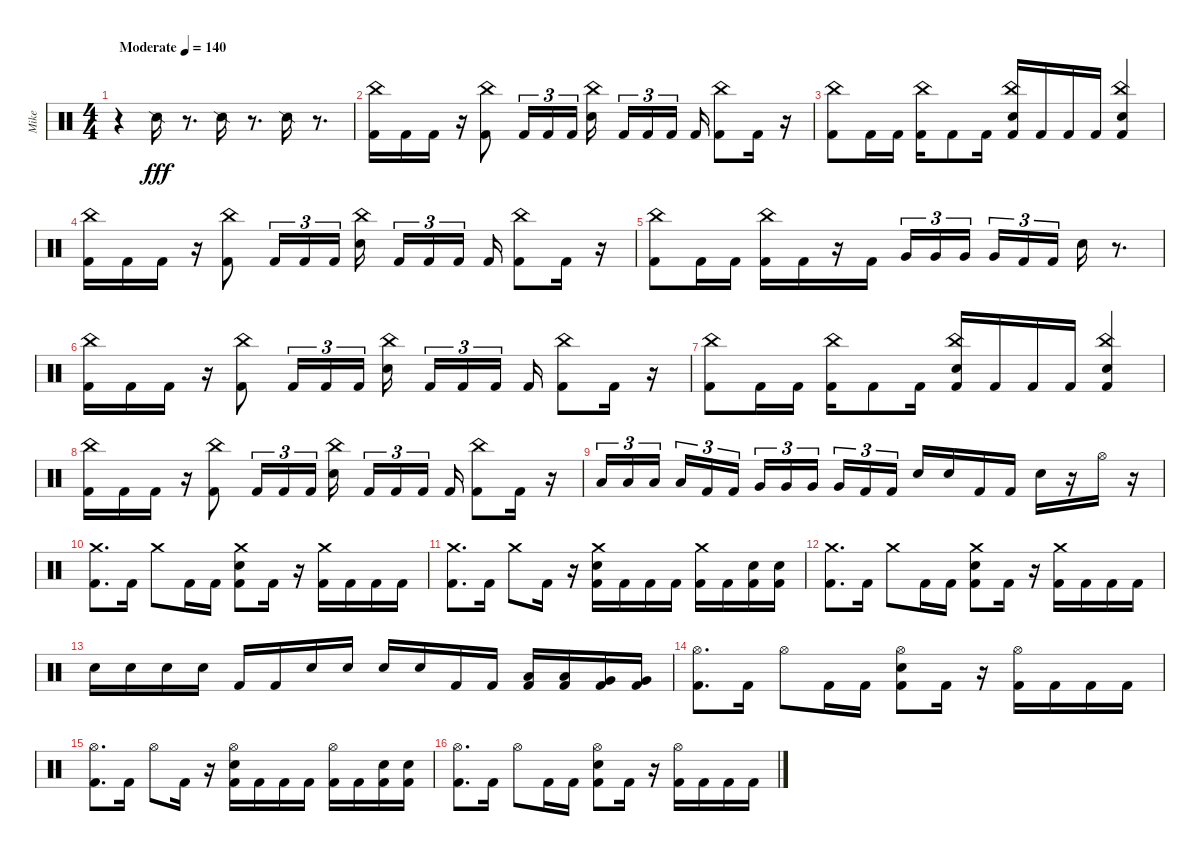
\track ("Mike" "Mike") {instrument percussion}
\staff {score}
\articulation defaults
\ts (4 4)
\tempo (140 "Moderate")
\clef neutral
\ks c
r.4{dy fff} "Snare (side stick) 2".16 r.8{d} "Snare (side stick) 2".16 r.8{d} "Snare (side stick) 2".16 r.8{d} |
("Kick (hit) 2" "China (hit)").16 "Kick (hit) 2".16 "Kick (hit) 2".16 r.16 ("Kick (hit) 2" "China (hit)").8 "Kick (hit) 2".16{tu (3 2)} "Kick (hit) 2".16{tu (3 2)} "Kick (hit) 2".16{tu (3 2)} ("Electric Snare (hit)" "China (hit)").16{beam splitsecondary} "Kick (hit) 2".16{tu (3 2)} "Kick (hit) 2".16{tu (3 2)} "Kick (hit) 2".16{tu (3 2) beam splitsecondary} "Kick (hit) 2".16 ("Kick (hit) 2" "China (hit)").8 "Kick (hit) 2".16 r.16 |
("Kick (hit) 2" "China (hit)").8 "Kick (hit) 2".16 "Kick (hit) 2".16 ("Kick (hit) 2" "China (hit)").16 "Kick (hit) 2".8 "Kick (hit) 2".16 ("Kick (hit) 2" "Electric Snare (hit)" "China (hit)").16 "Kick (hit) 2".16 "Kick (hit) 2".16 "Kick (hit) 2".16 ("Kick (hit) 2" "Electric Snare (hit)" "China (hit)").4 |
("Kick (hit) 2" "China (hit)").16 "Kick (hit) 2".16 "Kick (hit) 2".16 r.16 ("Kick (hit) 2" "China (hit)").8 "Kick (hit) 2".16{tu (3 2)} "Kick (hit) 2".16{tu (3 2)} "Kick (hit) 2".16{tu (3 2)} ("Electric Snare (hit)" "China (hit)").16{beam splitsecondary} "Kick (hit) 2".16{tu (3 2)} "Kick (hit) 2".16{tu (3 2)} "Kick (hit) 2".16{tu (3 2) beam splitsecondary} "Kick (hit) 2".16 ("Kick (hit) 2" "China (hit)").8 "Kick (hit) 2".16 r.16 |
("Kick (hit) 2" "China (hit)").8 "Kick (hit) 2".16 "Kick (hit) 2".16 ("Kick (hit) 2" "China (hit)").16 "Kick (hit) 2".16 r.16 "Kick (hit) 2".16 "Very Low Tom (hit)".16{tu (3 2)} "Very Low Tom (hit)".16{tu (3 2)} "Very Low Tom (hit)".16{tu (3 2) beam splitsecondary} "Very Low Tom (hit)".16{tu (3 2)} "Kick (hit) 2".16{tu (3 2)} "Kick (hit) 2".16{tu (3 2)} "Electric Snare (hit)".16 r.8{d} |
("Kick (hit) 2" "China (hit)").16 "Kick (hit) 2".16 "Kick (hit) 2".16 r.16 ("Kick (hit) 2" "China (hit)").8 "Kick (hit) 2".16{tu (3 2)} "Kick (hit) 2".16{tu (3 2)} "Kick (hit) 2".16{tu (3 2)} ("Electric Snare (hit)" "China (hit)").16{beam splitsecondary} "Kick (hit) 2".16{tu (3 2)} "Kick (hit) 2".16{tu (3 2)} "Kick (hit) 2".16{tu (3 2) beam splitsecondary} "Kick (hit) 2".16 ("Kick (hit) 2" "China (hit)").8 "Kick (hit) 2".16 r.16 |
("Kick (hit) 2" "China (hit)").8 "Kick (hit) 2".16 "Kick (hit) 2".16 ("Kick (hit) 2" "China (hit)").16 "Kick (hit) 2".8 "Kick (hit) 2".16 ("Kick (hit) 2" "Electric Snare (hit)" "China (hit)").16 "Kick (hit) 2".16 "Kick (hit) 2".16 "Kick (hit) 2".16 ("Kick (hit) 2" "Electric Snare (hit)" "China (hit)").4 |
("Kick (hit) 2" "China (hit)").16 "Kick (hit) 2".16 "Kick (hit) 2".16 r.16 ("Kick (hit) 2" "China (hit)").8 "Kick (hit) 2".16{tu (3 2)} "Kick (hit) 2".16{tu (3 2)} "Kick (hit) 2".16{tu (3 2)} ("Electric Snare (hit)" "China (hit)").16{beam splitsecondary} "Kick (hit) 2".16{tu (3 2)} "Kick (hit) 2".16{tu (3 2)} "Kick (hit) 2".16{tu (3 2) beam splitsecondary} "Kick (hit) 2".16 ("Kick (hit) 2" "China (hit)").8 "Kick (hit) 2".16 r.16 |
"Low Tom (hit)".16{tu (3 2)} "Low Tom (hit)".16{tu (3 2)} "Low Tom (hit)".16{tu (3 2) beam splitsecondary} "Low Tom (hit)".16{tu (3 2)} "Kick (hit) 2".16{tu (3 2)} "Kick (hit) 2".16{tu (3 2)} "Very Low Tom (hit)".16{tu (3 2)} "Very Low Tom (hit)".16{tu (3 2)} "Very Low Tom (hit)".16{tu (3 2) beam splitsecondary} "Very Low Tom (hit)".16{tu (3 2)} "Kick (hit) 2".16{tu (3 2)} "Kick (hit) 2".16{tu (3 2)} "Electric Snare (hit)".16 "Electric Snare (hit)".16 "Kick (hit) 2".16 "Kick (hit) 2".16 "Electric Snare (hit)".16 r.16 "Hi-Hat (open)".16 r.16 |
("Kick (hit) 2" "Crash medium (hit)").8{d} "Kick (hit) 2".16 "Crash medium (hit)".8 "Kick (hit) 2".16 "Kick (hit) 2".16 ("Kick (hit) 2" "Electric Snare (hit)" "Crash medium (hit)").8 "Kick (hit) 2".16 r.16 ("Kick (hit) 2" "Crash medium (hit)").16 "Kick (hit) 2".16 "Kick (hit) 2".16 "Kick (hit) 2".16 |
("Kick (hit) 2" "Crash medium (hit)").8{d} "Kick (hit) 2".16 "Crash medium (hit)".8 "Kick (hit) 2".16 r.16 ("Kick (hit) 2" "Electric Snare (hit)" "Crash medium (hit)").16 "Kick (hit) 2".16 "Kick (hit) 2".16 "Kick (hit) 2".16 ("Kick (hit) 2" "Crash medium (hit)").16 "Kick (hit) 2".16 ("Kick (hit) 2" "Electric Snare (hit)").16 ("Kick (hit) 2" "Electric Snare (hit)").16 |
("Kick (hit) 2" "Crash medium (hit)").8{d} "Kick (hit) 2".16 "Crash medium (hit)".8 "Kick (hit) 2".16 "Kick (hit) 2".16 ("Kick (hit) 2" "Electric Snare (hit)" "Crash medium (hit)").8 "Kick (hit) 2".16 r.16 ("Kick (hit) 2" "Crash medium (hit)").16 "Kick (hit) 2".16 "Kick (hit) 2".16 "Kick (hit) 2".16 |
"Electric Snare (hit)".16 "Electric Snare (hit)".16 "Electric Snare (hit)".16 "Electric Snare (hit)".16 "Kick (hit) 2".16 "Kick (hit) 2".16 "Electric Snare (hit)".16 "Electric Snare (hit)".16 "Electric Snare (hit)".16 "Electric Snare (hit)".16 "Kick (hit) 2".16 "Kick (hit) 2".16 ("Kick (hit) 2" "Low Tom (hit)").16 ("Kick (hit) 2" "Low Tom (hit)").16 ("Kick (hit) 2" "Very Low Tom (hit)").16 ("Kick (hit) 2" "Very Low Tom (hit)").16 |
("Kick (hit) 2" "Hi-Hat (open)").8{d} "Kick (hit) 2".16 "Hi-Hat (open)".8 "Kick (hit) 2".16 "Kick (hit) 2".16 ("Kick (hit) 2" "Electric Snare (hit)" "Hi-Hat (open)").8 "Kick (hit) 2".16 r.16 ("Kick (hit) 2" "Hi-Hat (open)").16 "Kick (hit) 2".16 "Kick (hit) 2".16 "Kick (hit) 2".16 |
("Kick (hit) 2" "Hi-Hat (open)").8{d} "Kick (hit) 2".16 "Hi-Hat (open)".8 "Kick (hit) 2".16 r.16 ("Kick (hit) 2" "Electric Snare (hit)" "Hi-Hat (open)").16 "Kick (hit) 2".16 "Kick (hit) 2".16 "Kick (hit) 2".16 ("Kick (hit) 2" "Hi-Hat (open)").16 "Kick (hit) 2".16 ("Kick (hit) 2" "Electric Snare (hit)").16 ("Kick (hit) 2" "Electric Snare (hit)").16 |
("Kick (hit) 2" "Hi-Hat (open)").8{d} "Kick (hit) 2".16 "Hi-Hat (open)".8 "Kick (hit) 2".16 "Kick (hit) 2".16 ("Kick (hit) 2" "Electric Snare (hit)" "Hi-Hat (open)").8 "Kick (hit) 2".16 r.16 ("Kick (hit) 2" "Hi-Hat (open)").16 "Kick (hit) 2".16 "Kick (hit) 2".16 "Kick (hit) 2".16
